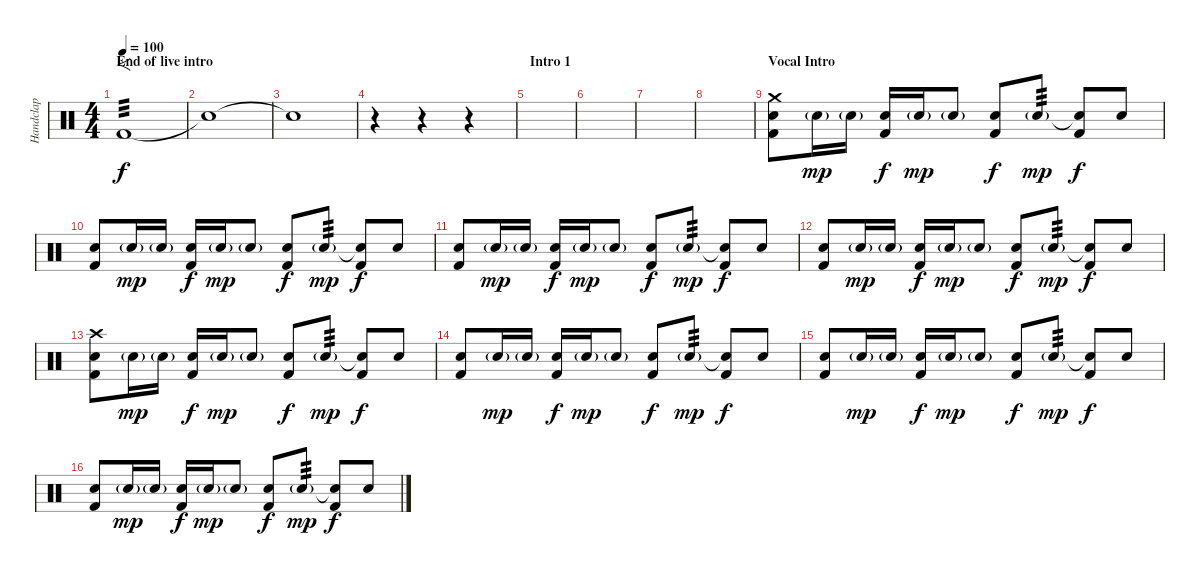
\track ("Handclap" "Handclap") {instrument percussion}
\staff {score}
\articulation defaults
\ts (4 4)
\section ("" "End of live intro")
\tempo 100
\clef neutral
\ks c "Kick (hit) 2".1{f tp 3 dy f}
|
"Snare (hit)"{t}.1 |
"Snare (hit)"{t}.1 |
r.4 r.4 r.4 |
\section ("" "Intro 1")
|
|
|
|
\section ("" "Vocal Intro")
("Snare (hit) 2" "Crash medium (hit)" "Kick (hit) 2").8 "Snare (hit) 2"{g}.16{dy mp} "Snare (hit) 2"{g}.16 ("Snare (hit) 2" "Kick (hit) 2").16{dy f} "Snare (hit) 2"{g}.16{dy mp} "Snare (hit) 2"{g}.8 ("Snare (hit) 2" "Kick (hit) 2").8{dy f} "Snare (hit) 2"{g}.8{tp 3 dy mp} ("Snare (hit)"{t} "Kick (hit) 2").8{dy f} "Snare (hit) 2".8 |
("Snare (hit) 2" "Kick (hit) 2").8 "Snare (hit) 2"{g}.16{dy mp} "Snare (hit) 2"{g}.16 ("Snare (hit) 2" "Kick (hit) 2").16{dy f} "Snare (hit) 2"{g}.16{dy mp} "Snare (hit) 2"{g}.8 ("Snare (hit) 2" "Kick (hit) 2").8{dy f} "Snare (hit) 2"{g}.8{tp 3 dy mp} ("Snare (hit)"{t} "Kick (hit) 2").8{dy f} "Snare (hit) 2".8 |
("Snare (hit) 2" "Kick (hit) 2").8 "Snare (hit) 2"{g}.16{dy mp} "Snare (hit) 2"{g}.16 ("Snare (hit) 2" "Kick (hit) 2").16{dy f} "Snare (hit) 2"{g}.16{dy mp} "Snare (hit) 2"{g}.8 ("Snare (hit) 2" "Kick (hit) 2").8{dy f} "Snare (hit) 2"{g}.8{tp 3 dy mp} ("Snare (hit)"{t} "Kick (hit) 2").8{dy f} "Snare (hit) 2".8 |
("Snare (hit) 2" "Kick (hit) 2").8 "Snare (hit) 2"{g}.16{dy mp} "Snare (hit) 2"{g}.16 ("Snare (hit) 2" "Kick (hit) 2").16{dy f} "Snare (hit) 2"{g}.16{dy mp} "Snare (hit) 2"{g}.8 ("Snare (hit) 2" "Kick (hit) 2").8{dy f} "Snare (hit) 2"{g}.8{tp 3 dy mp} ("Snare (hit)"{t} "Kick (hit) 2").8{dy f} "Snare (hit) 2".8 |
("Snare (hit) 2" "Crash high (hit)" "Kick (hit) 2").8 "Snare (hit) 2"{g}.16{dy mp} "Snare (hit) 2"{g}.16 ("Snare (hit) 2" "Kick (hit) 2").16{dy f} "Snare (hit) 2"{g}.16{dy mp} "Snare (hit) 2"{g}.8 ("Snare (hit) 2" "Kick (hit) 2").8{dy f} "Snare (hit) 2"{g}.8{tp 3 dy mp} ("Snare (hit)"{t} "Kick (hit) 2").8{dy f} "Snare (hit) 2".8 |
("Snare (hit) 2" "Kick (hit) 2").8 "Snare (hit) 2"{g}.16{dy mp} "Snare (hit) 2"{g}.16 ("Snare (hit) 2" "Kick (hit) 2").16{dy f} "Snare (hit) 2"{g}.16{dy mp} "Snare (hit) 2"{g}.8 ("Snare (hit) 2" "Kick (hit) 2").8{dy f} "Snare (hit) 2"{g}.8{tp 3 dy mp} ("Snare (hit)"{t} "Kick (hit) 2").8{dy f} "Snare (hit) 2".8 |
("Snare (hit) 2" "Kick (hit) 2").8 "Snare (hit) 2"{g}.16{dy mp} "Snare (hit) 2"{g}.16 ("Snare (hit) 2" "Kick (hit) 2").16{dy f} "Snare (hit) 2"{g}.16{dy mp} "Snare (hit) 2"{g}.8 ("Snare (hit) 2" "Kick (hit) 2").8{dy f} "Snare (hit) 2"{g}.8{tp 3 dy mp} ("Snare (hit)"{t} "Kick (hit) 2").8{dy f} "Snare (hit) 2".8 |
("Snare (hit) 2" "Kick (hit) 2").8 "Snare (hit) 2"{g}.16{dy mp} "Snare (hit) 2"{g}.16 ("Snare (hit) 2" "Kick (hit) 2").16{dy f} "Snare (hit) 2"{g}.16{dy mp} "Snare (hit) 2"{g}.8 ("Snare (hit) 2" "Kick (hit) 2").8{dy f} "Snare (hit) 2"{g}.8{tp 3 dy mp} ("Snare (hit)"{t} "Kick (hit) 2").8{dy f} "Snare (hit) 2".8
